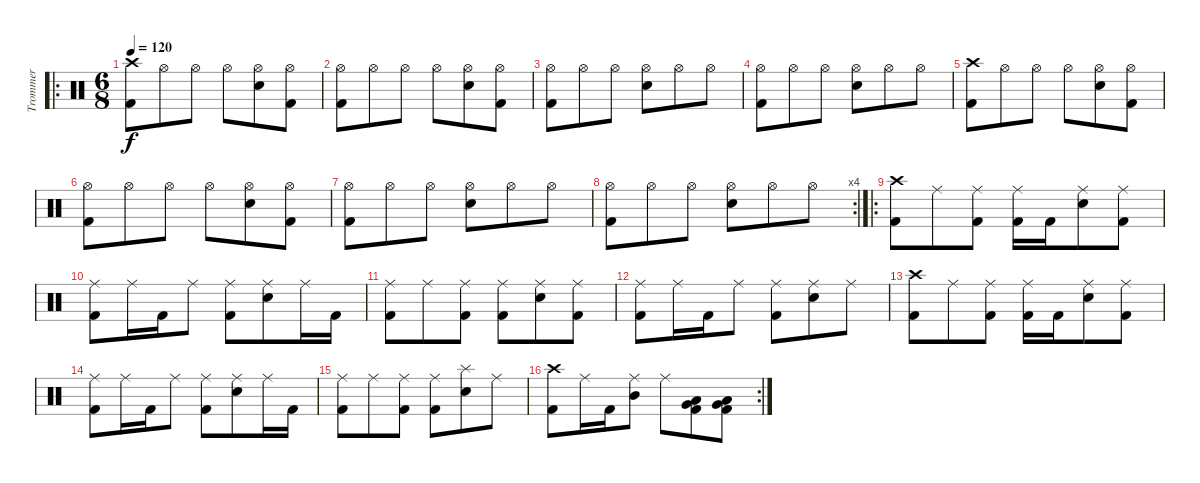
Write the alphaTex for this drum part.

\track ("Trommer" "Trommer") {instrument percussion}
\staff {score}
\articulation defaults
\ro
\ts (6 8)
\tempo 120
\clef neutral
\ks c
("Kick (hit) 2" "Crash high (hit)").8{dy f} "Hi-Hat (open)".8 "Hi-Hat (open)".8 "Hi-Hat (open)".8 ("Snare (hit) 2" "Hi-Hat (open)").8 ("Kick (hit) 2" "Hi-Hat (open)").8 |
("Kick (hit) 2" "Hi-Hat (open)").8 "Hi-Hat (open)".8 "Hi-Hat (open)".8 "Hi-Hat (open)".8 ("Snare (hit) 2" "Hi-Hat (open)").8 ("Kick (hit) 2" "Hi-Hat (open)").8 |
("Kick (hit) 2" "Hi-Hat (open)").8 "Hi-Hat (open)".8 "Hi-Hat (open)".8 ("Snare (hit) 2" "Hi-Hat (open)").8 "Hi-Hat (open)".8 "Hi-Hat (open)".8 |
("Kick (hit) 2" "Hi-Hat (open)").8 "Hi-Hat (open)".8 "Hi-Hat (open)".8 ("Snare (hit) 2" "Hi-Hat (open)").8 "Hi-Hat (open)".8 "Hi-Hat (open)".8 |
("Kick (hit) 2" "Crash high (hit)").8 "Hi-Hat (open)".8 "Hi-Hat (open)".8 "Hi-Hat (open)".8 ("Snare (hit) 2" "Hi-Hat (open)").8 ("Kick (hit) 2" "Hi-Hat (open)").8 |
("Kick (hit) 2" "Hi-Hat (open)").8 "Hi-Hat (open)".8 "Hi-Hat (open)".8 "Hi-Hat (open)".8 ("Snare (hit) 2" "Hi-Hat (open)").8 ("Kick (hit) 2" "Hi-Hat (open)").8 |
("Kick (hit) 2" "Hi-Hat (open)").8 "Hi-Hat (open)".8 "Hi-Hat (open)".8 ("Snare (hit) 2" "Hi-Hat (open)").8 "Hi-Hat (open)".8 "Hi-Hat (open)".8 |
\rc 4
("Kick (hit) 2" "Hi-Hat (open)").8 "Hi-Hat (open)".8 "Hi-Hat (open)".8 ("Snare (hit) 2" "Hi-Hat (open)").8 "Hi-Hat (open)".8 "Hi-Hat (open)".8 |
\ro
("Kick (hit) 2" "Crash high (hit)").8 "Ride (middle)".8 ("Kick (hit) 2" "Ride (middle)").8 ("Kick (hit) 2" "Ride (middle)").16 "Kick (hit) 2".16 ("Snare (hit) 2" "Ride (middle)").8 ("Kick (hit) 2" "Ride (middle)").8 |
("Kick (hit) 2" "Ride (middle)").8 "Ride (middle)".16 "Kick (hit) 2".16 "Ride (middle)".8 ("Kick (hit) 2" "Ride (middle)").8 ("Snare (hit) 2" "Ride (middle)").8 "Ride (middle)".16 "Kick (hit) 2".16 |
("Kick (hit) 2" "Ride (middle)").8 "Ride (middle)".8 ("Kick (hit) 2" "Ride (middle)").8 ("Kick (hit) 2" "Ride (middle)").8 ("Snare (hit) 2" "Ride (middle)").8 ("Kick (hit) 2" "Ride (middle)").8 |
("Kick (hit) 2" "Ride (middle)").8 "Ride (middle)".16 "Kick (hit) 2".16 "Ride (middle)".8 ("Kick (hit) 2" "Ride (middle)").8 ("Snare (hit) 2" "Ride (middle)").8 "Ride (middle)".8 |
("Kick (hit) 2" "Crash high (hit)").8 "Ride (middle)".8 ("Kick (hit) 2" "Ride (middle)").8 ("Kick (hit) 2" "Ride (middle)").16 "Kick (hit) 2".16 ("Snare (hit) 2" "Ride (middle)").8 ("Kick (hit) 2" "Ride (middle)").8 |
("Kick (hit) 2" "Ride (middle)").8 "Ride (middle)".16 "Kick (hit) 2".16 "Ride (middle)".8 ("Kick (hit) 2" "Ride (middle)").8 ("Snare (hit) 2" "Ride (middle)").8 "Ride (middle)".16 "Kick (hit) 2".16 |
("Kick (hit) 2" "Ride (middle)").8 "Ride (middle)".8 ("Kick (hit) 2" "Ride (middle)").8 ("Kick (hit) 2" "Ride (middle)").8 ("Snare (hit) 2" "Splash (hit)").8 "Ride (middle)".8 |
\rc 2
("Kick (hit) 2" "Crash high (hit)").8 "Ride (middle)".16 "Kick (hit) 2".16 ("Mid Tom (hit)" "Ride (middle)").8 "Ride (middle)".8 ("Kick (hit) 2" "Very Low Tom (hit)" "Low Floor Tom (hit)").8 ("Kick (hit) 2" "Very Low Tom (hit)" "Low Floor Tom (hit)").8
